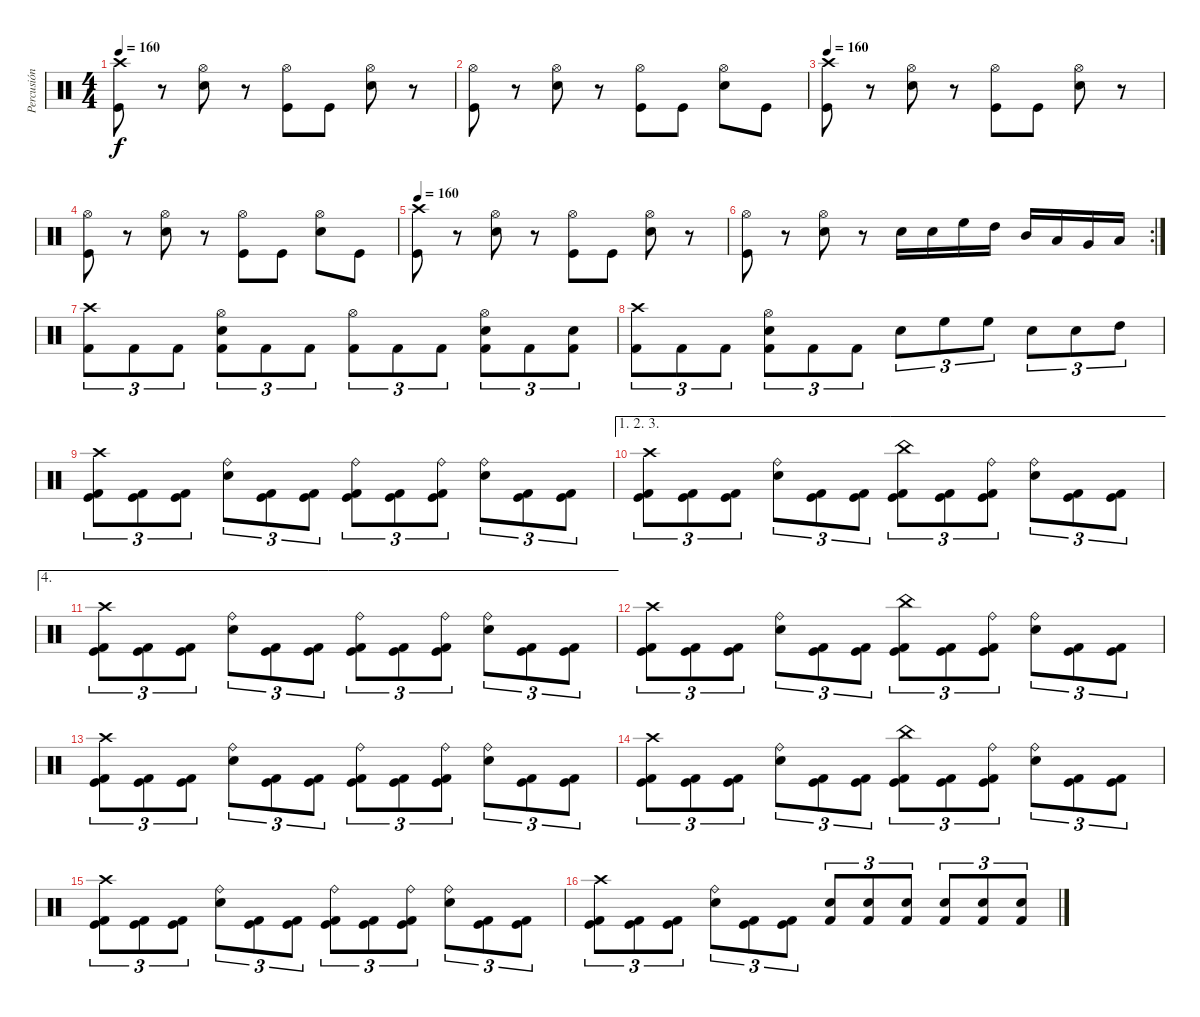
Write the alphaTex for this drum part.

\track ("Percusión" "Percusión") {instrument percussion}
\staff {score}
\articulation defaults
\ts (4 4)
\tempo 160
\clef neutral
\ks c
("Crash high (hit)" "Kick (hit)").8{dy f} r.8 ("Hi-Hat (open)" "Electric Snare (hit)").8 r.8 ("Hi-Hat (open)" "Kick (hit)").8 "Kick (hit)".8 ("Hi-Hat (open)" "Electric Snare (hit)").8 r.8 |
("Hi-Hat (open)" "Kick (hit)").8 r.8 ("Hi-Hat (open)" "Electric Snare (hit)").8 r.8 ("Hi-Hat (open)" "Kick (hit)").8 "Kick (hit)".8 ("Hi-Hat (open)" "Electric Snare (hit)").8 "Kick (hit)".8 |
\tempo 160
("Crash high (hit)" "Kick (hit)").8 r.8 ("Hi-Hat (open)" "Electric Snare (hit)").8 r.8 ("Hi-Hat (open)" "Kick (hit)").8 "Kick (hit)".8 ("Hi-Hat (open)" "Electric Snare (hit)").8 r.8 |
("Hi-Hat (open)" "Kick (hit)").8 r.8 ("Hi-Hat (open)" "Electric Snare (hit)").8 r.8 ("Hi-Hat (open)" "Kick (hit)").8 "Kick (hit)".8 ("Hi-Hat (open)" "Electric Snare (hit)").8 "Kick (hit)".8 |
\tempo 160
("Crash high (hit)" "Kick (hit)").8 r.8 ("Hi-Hat (open)" "Electric Snare (hit)").8 r.8 ("Hi-Hat (open)" "Kick (hit)").8 "Kick (hit)".8 ("Hi-Hat (open)" "Electric Snare (hit)").8 r.8 |
\rc 2
("Hi-Hat (open)" "Kick (hit)").8 r.8 ("Hi-Hat (open)" "Electric Snare (hit)").8 r.8 "Electric Snare (hit)".16 "Electric Snare (hit)".16 "High Floor Tom (hit)".16 "High Tom (hit)".16 "Mid Tom (hit)".16 "Low Tom (hit)".16 "Very Low Tom (hit)".16 "Low Floor Tom (hit)".16 |
("Crash high (hit)" "Kick (hit) 2").8{tu (3 2)} "Kick (hit) 2".8{tu (3 2)} "Kick (hit) 2".8{tu (3 2)} ("Hi-Hat (open)" "Electric Snare (hit)" "Kick (hit) 2").8{tu (3 2)} "Kick (hit) 2".8{tu (3 2)} "Kick (hit) 2".8{tu (3 2)} ("Hi-Hat (open)" "Kick (hit) 2").8{tu (3 2)} "Kick (hit) 2".8{tu (3 2)} "Kick (hit) 2".8{tu (3 2)} ("Hi-Hat (open)" "Electric Snare (hit)" "Kick (hit) 2").8{tu (3 2)} "Kick (hit) 2".8{tu (3 2)} ("Electric Snare (hit)" "Kick (hit) 2").8{tu (3 2)} |
("Crash high (hit)" "Kick (hit) 2").8{tu (3 2)} "Kick (hit) 2".8{tu (3 2)} "Kick (hit) 2".8{tu (3 2)} ("Hi-Hat (open)" "Electric Snare (hit)" "Kick (hit) 2").8{tu (3 2)} "Kick (hit) 2".8{tu (3 2)} "Kick (hit) 2".8{tu (3 2)} "Electric Snare (hit)".8{tu (3 2)} "High Floor Tom (hit)".8{tu (3 2)} "High Floor Tom (hit)".8{tu (3 2)} "Electric Snare (hit)".8{tu (3 2)} "Electric Snare (hit)".8{tu (3 2)} "High Tom (hit)".8{tu (3 2)} |
("Crash high (hit)" "Kick (hit) 2" "Kick (hit)").8{tu (3 2)} ("Kick (hit) 2" "Kick (hit)").8{tu (3 2)} ("Kick (hit) 2" "Kick (hit)").8{tu (3 2)} ("Ride (bell)" "Electric Snare (hit)").8{tu (3 2)} ("Kick (hit) 2" "Kick (hit)").8{tu (3 2)} ("Kick (hit) 2" "Kick (hit)").8{tu (3 2)} ("Ride (bell)" "Kick (hit) 2" "Kick (hit)").8{tu (3 2)} ("Kick (hit) 2" "Kick (hit)").8{tu (3 2)} ("Ride (bell)" "Kick (hit) 2" "Kick (hit)").8{tu (3 2)} ("Ride (bell)" "Electric Snare (hit)").8{tu (3 2)} ("Kick (hit) 2" "Kick (hit)").8{tu (3 2)} ("Kick (hit) 2" "Kick (hit)").8{tu (3 2)} |
\ae (1 2 3)
("Crash high (hit)" "Kick (hit) 2" "Kick (hit)").8{tu (3 2)} ("Kick (hit) 2" "Kick (hit)").8{tu (3 2)} ("Kick (hit) 2" "Kick (hit)").8{tu (3 2)} ("Ride (bell)" "Electric Snare (hit)").8{tu (3 2)} ("Kick (hit) 2" "Kick (hit)").8{tu (3 2)} ("Kick (hit) 2" "Kick (hit)").8{tu (3 2)} ("China (hit)" "Kick (hit) 2" "Kick (hit)").8{tu (3 2)} ("Kick (hit) 2" "Kick (hit)").8{tu (3 2)} ("Ride (bell)" "Kick (hit) 2" "Kick (hit)").8{tu (3 2)} ("Ride (bell)" "Electric Snare (hit)").8{tu (3 2)} ("Kick (hit) 2" "Kick (hit)").8{tu (3 2)} ("Kick (hit) 2" "Kick (hit)").8{tu (3 2)} |
\ae 4
("Crash high (hit)" "Kick (hit) 2" "Kick (hit)").8{tu (3 2)} ("Kick (hit) 2" "Kick (hit)").8{tu (3 2)} ("Kick (hit) 2" "Kick (hit)").8{tu (3 2)} ("Ride (bell)" "Electric Snare (hit)").8{tu (3 2)} ("Kick (hit) 2" "Kick (hit)").8{tu (3 2)} ("Kick (hit) 2" "Kick (hit)").8{tu (3 2)} ("Ride (bell)" "Kick (hit) 2" "Kick (hit)").8{tu (3 2)} ("Kick (hit) 2" "Kick (hit)").8{tu (3 2)} ("Ride (bell)" "Kick (hit) 2" "Kick (hit)").8{tu (3 2)} ("Ride (bell)" "Electric Snare (hit)").8{tu (3 2)} ("Kick (hit) 2" "Kick (hit)").8{tu (3 2)} ("Kick (hit) 2" "Kick (hit)").8{tu (3 2)} |
("Crash high (hit)" "Kick (hit) 2" "Kick (hit)").8{tu (3 2)} ("Kick (hit) 2" "Kick (hit)").8{tu (3 2)} ("Kick (hit) 2" "Kick (hit)").8{tu (3 2)} ("Ride (bell)" "Electric Snare (hit)").8{tu (3 2)} ("Kick (hit) 2" "Kick (hit)").8{tu (3 2)} ("Kick (hit) 2" "Kick (hit)").8{tu (3 2)} ("China (hit)" "Kick (hit) 2" "Kick (hit)").8{tu (3 2)} ("Kick (hit) 2" "Kick (hit)").8{tu (3 2)} ("Ride (bell)" "Kick (hit) 2" "Kick (hit)").8{tu (3 2)} ("Ride (bell)" "Electric Snare (hit)").8{tu (3 2)} ("Kick (hit) 2" "Kick (hit)").8{tu (3 2)} ("Kick (hit) 2" "Kick (hit)").8{tu (3 2)} |
("Crash high (hit)" "Kick (hit) 2" "Kick (hit)").8{tu (3 2)} ("Kick (hit) 2" "Kick (hit)").8{tu (3 2)} ("Kick (hit) 2" "Kick (hit)").8{tu (3 2)} ("Ride (bell)" "Electric Snare (hit)").8{tu (3 2)} ("Kick (hit) 2" "Kick (hit)").8{tu (3 2)} ("Kick (hit) 2" "Kick (hit)").8{tu (3 2)} ("Ride (bell)" "Kick (hit) 2" "Kick (hit)").8{tu (3 2)} ("Kick (hit) 2" "Kick (hit)").8{tu (3 2)} ("Ride (bell)" "Kick (hit) 2" "Kick (hit)").8{tu (3 2)} ("Ride (bell)" "Electric Snare (hit)").8{tu (3 2)} ("Kick (hit) 2" "Kick (hit)").8{tu (3 2)} ("Kick (hit) 2" "Kick (hit)").8{tu (3 2)} |
("Crash high (hit)" "Kick (hit) 2" "Kick (hit)").8{tu (3 2)} ("Kick (hit) 2" "Kick (hit)").8{tu (3 2)} ("Kick (hit) 2" "Kick (hit)").8{tu (3 2)} ("Ride (bell)" "Electric Snare (hit)").8{tu (3 2)} ("Kick (hit) 2" "Kick (hit)").8{tu (3 2)} ("Kick (hit) 2" "Kick (hit)").8{tu (3 2)} ("China (hit)" "Kick (hit) 2" "Kick (hit)").8{tu (3 2)} ("Kick (hit) 2" "Kick (hit)").8{tu (3 2)} ("Ride (bell)" "Kick (hit) 2" "Kick (hit)").8{tu (3 2)} ("Ride (bell)" "Electric Snare (hit)").8{tu (3 2)} ("Kick (hit) 2" "Kick (hit)").8{tu (3 2)} ("Kick (hit) 2" "Kick (hit)").8{tu (3 2)} |
("Crash high (hit)" "Kick (hit) 2" "Kick (hit)").8{tu (3 2)} ("Kick (hit) 2" "Kick (hit)").8{tu (3 2)} ("Kick (hit) 2" "Kick (hit)").8{tu (3 2)} ("Ride (bell)" "Electric Snare (hit)").8{tu (3 2)} ("Kick (hit) 2" "Kick (hit)").8{tu (3 2)} ("Kick (hit) 2" "Kick (hit)").8{tu (3 2)} ("Ride (bell)" "Kick (hit) 2" "Kick (hit)").8{tu (3 2)} ("Kick (hit) 2" "Kick (hit)").8{tu (3 2)} ("Ride (bell)" "Kick (hit) 2" "Kick (hit)").8{tu (3 2)} ("Ride (bell)" "Electric Snare (hit)").8{tu (3 2)} ("Kick (hit) 2" "Kick (hit)").8{tu (3 2)} ("Kick (hit) 2" "Kick (hit)").8{tu (3 2)} |
("Crash high (hit)" "Kick (hit) 2" "Kick (hit)").8{tu (3 2)} ("Kick (hit) 2" "Kick (hit)").8{tu (3 2)} ("Kick (hit) 2" "Kick (hit)").8{tu (3 2)} ("Ride (bell)" "Electric Snare (hit)").8{tu (3 2)} ("Kick (hit) 2" "Kick (hit)").8{tu (3 2)} ("Kick (hit) 2" "Kick (hit)").8{tu (3 2)} ("Kick (hit) 2" "Electric Snare (hit)").8{tu (3 2)} ("Kick (hit) 2" "Electric Snare (hit)").8{tu (3 2)} ("Kick (hit) 2" "Electric Snare (hit)").8{tu (3 2)} ("Kick (hit) 2" "Electric Snare (hit)").8{tu (3 2)} ("Kick (hit) 2" "Electric Snare (hit)").8{tu (3 2)} ("Kick (hit) 2" "Electric Snare (hit)").8{tu (3 2)}
